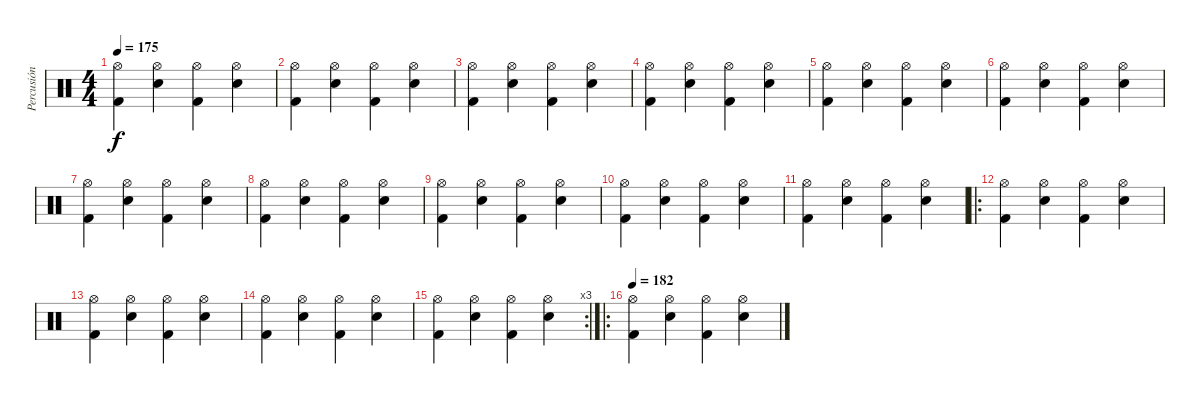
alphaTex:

\track ("Percusión" "Percusión") {instrument percussion}
\staff {score}
\articulation defaults
\ts (4 4)
\tempo 175
\clef neutral
\ks c
("Kick (hit) 2" "Hi-Hat (open)").4{dy f} ("Electric Snare (hit)" "Hi-Hat (open)").4 ("Kick (hit) 2" "Hi-Hat (open)").4 ("Electric Snare (hit)" "Hi-Hat (open)").4 |
("Kick (hit) 2" "Hi-Hat (open)").4 ("Electric Snare (hit)" "Hi-Hat (open)").4 ("Kick (hit) 2" "Hi-Hat (open)").4 ("Electric Snare (hit)" "Hi-Hat (open)").4 |
("Kick (hit) 2" "Hi-Hat (open)").4 ("Electric Snare (hit)" "Hi-Hat (open)").4 ("Kick (hit) 2" "Hi-Hat (open)").4 ("Electric Snare (hit)" "Hi-Hat (open)").4 |
("Kick (hit) 2" "Hi-Hat (open)").4 ("Electric Snare (hit)" "Hi-Hat (open)").4 ("Kick (hit) 2" "Hi-Hat (open)").4 ("Electric Snare (hit)" "Hi-Hat (open)").4 |
("Kick (hit) 2" "Hi-Hat (open)").4 ("Electric Snare (hit)" "Hi-Hat (open)").4 ("Kick (hit) 2" "Hi-Hat (open)").4 ("Electric Snare (hit)" "Hi-Hat (open)").4 |
("Kick (hit) 2" "Hi-Hat (open)").4 ("Electric Snare (hit)" "Hi-Hat (open)").4 ("Kick (hit) 2" "Hi-Hat (open)").4 ("Electric Snare (hit)" "Hi-Hat (open)").4 |
("Kick (hit) 2" "Hi-Hat (open)").4 ("Electric Snare (hit)" "Hi-Hat (open)").4 ("Kick (hit) 2" "Hi-Hat (open)").4 ("Electric Snare (hit)" "Hi-Hat (open)").4 |
("Kick (hit) 2" "Hi-Hat (open)").4 ("Electric Snare (hit)" "Hi-Hat (open)").4 ("Kick (hit) 2" "Hi-Hat (open)").4 ("Electric Snare (hit)" "Hi-Hat (open)").4 |
("Kick (hit) 2" "Hi-Hat (open)").4 ("Electric Snare (hit)" "Hi-Hat (open)").4 ("Kick (hit) 2" "Hi-Hat (open)").4 ("Electric Snare (hit)" "Hi-Hat (open)").4 |
("Kick (hit) 2" "Hi-Hat (open)").4 ("Electric Snare (hit)" "Hi-Hat (open)").4 ("Kick (hit) 2" "Hi-Hat (open)").4 ("Electric Snare (hit)" "Hi-Hat (open)").4 |
("Kick (hit) 2" "Hi-Hat (open)").4 ("Electric Snare (hit)" "Hi-Hat (open)").4 ("Kick (hit) 2" "Hi-Hat (open)").4 ("Electric Snare (hit)" "Hi-Hat (open)").4 |
\ro
("Kick (hit) 2" "Hi-Hat (open)").4 ("Electric Snare (hit)" "Hi-Hat (open)").4 ("Kick (hit) 2" "Hi-Hat (open)").4 ("Electric Snare (hit)" "Hi-Hat (open)").4 |
("Kick (hit) 2" "Hi-Hat (open)").4 ("Electric Snare (hit)" "Hi-Hat (open)").4 ("Kick (hit) 2" "Hi-Hat (open)").4 ("Electric Snare (hit)" "Hi-Hat (open)").4 |
("Kick (hit) 2" "Hi-Hat (open)").4 ("Electric Snare (hit)" "Hi-Hat (open)").4 ("Kick (hit) 2" "Hi-Hat (open)").4 ("Electric Snare (hit)" "Hi-Hat (open)").4 |
\rc 3
("Kick (hit) 2" "Hi-Hat (open)").4 ("Electric Snare (hit)" "Hi-Hat (open)").4 ("Kick (hit) 2" "Hi-Hat (open)").4 ("Electric Snare (hit)" "Hi-Hat (open)").4 |
\ro
\tempo 182
("Kick (hit) 2" "Hi-Hat (open)").4 ("Electric Snare (hit)" "Hi-Hat (open)").4 ("Kick (hit) 2" "Hi-Hat (open)").4 ("Electric Snare (hit)" "Hi-Hat (open)").4
